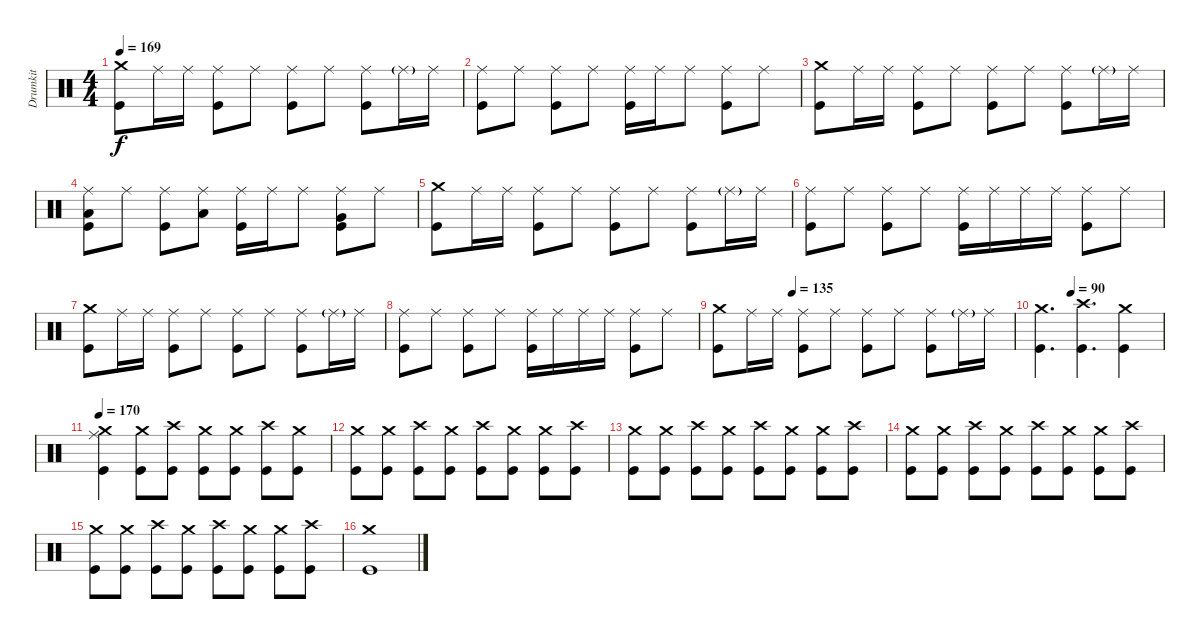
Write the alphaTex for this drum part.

\track ("Drumkit" "Drumkit") {instrument percussion}
\staff {score}
\articulation defaults
\ts (4 4)
\tempo 169
\clef neutral
\ks c
("Crash medium (hit)" "Kick (hit)").8{dy f} "Ride (middle)".16 "Ride (middle)".16 ("Ride (middle)" "Kick (hit)").8 "Ride (middle)".8 ("Ride (middle)" "Kick (hit)").8 "Ride (middle)".8 ("Ride (middle)" "Kick (hit)").8 "Ride (middle)"{g}.16 "Ride (middle)".16 |
("Ride (middle)" "Kick (hit)").8 "Ride (middle)".8 ("Ride (middle)" "Kick (hit)").8 "Ride (middle)".8 ("Ride (middle)" "Kick (hit)").16 "Ride (middle)".16 "Ride (middle)".8 ("Ride (middle)" "Kick (hit)").8 "Ride (middle)".8 |
("Crash medium (hit)" "Kick (hit)").8 "Ride (middle)".16 "Ride (middle)".16 ("Ride (middle)" "Kick (hit)").8 "Ride (middle)".8 ("Ride (middle)" "Kick (hit)").8 "Ride (middle)".8 ("Ride (middle)" "Kick (hit)").8 "Ride (middle)"{g}.16 "Ride (middle)".16 |
("Ride (middle)" "Low Floor Tom (hit)" "Kick (hit)").8 "Ride (middle)".8 ("Ride (middle)" "Kick (hit)").8 ("Ride (middle)" "Low Tom (hit)").8 ("Ride (middle)" "Kick (hit)").16 "Ride (middle)".16 "Ride (middle)".8 ("Ride (middle)" "Very Low Tom (hit)" "Kick (hit)").8 "Ride (middle)".8 |
("Crash medium (hit)" "Kick (hit)").8 "Ride (middle)".16 "Ride (middle)".16 ("Ride (middle)" "Kick (hit)").8 "Ride (middle)".8 ("Ride (middle)" "Kick (hit)").8 "Ride (middle)".8 ("Ride (middle)" "Kick (hit)").8 "Ride (middle)"{g}.16 "Ride (middle)".16 |
("Ride (middle)" "Kick (hit)").8 "Ride (middle)".8 ("Ride (middle)" "Kick (hit)").8 "Ride (middle)".8 ("Ride (middle)" "Kick (hit)").16 "Ride (middle)".16 "Ride (middle)".16 "Ride (middle)".16 ("Ride (middle)" "Kick (hit)").8 "Ride (middle)".8 |
("Crash medium (hit)" "Kick (hit)").8 "Ride (middle)".16 "Ride (middle)".16 ("Ride (middle)" "Kick (hit)").8 "Ride (middle)".8 ("Ride (middle)" "Kick (hit)").8 "Ride (middle)".8 ("Ride (middle)" "Kick (hit)").8 "Ride (middle)"{g}.16 "Ride (middle)".16 |
("Ride (middle)" "Kick (hit)").8 "Ride (middle)".8 ("Ride (middle)" "Kick (hit)").8 "Ride (middle)".8 ("Ride (middle)" "Kick (hit)").16 "Ride (middle)".16 "Ride (middle)".16 "Ride (middle)".16 ("Ride (middle)" "Kick (hit)").8 "Ride (middle)".8 |
\tempo (135 0.25)
("Crash medium (hit)" "Kick (hit)").8 "Ride (middle)".16 "Ride (middle)".16 ("Ride (middle)" "Kick (hit)").8 "Ride (middle)".8 ("Ride (middle)" "Kick (hit)").8 "Ride (middle)".8 ("Ride (middle)" "Kick (hit)").8 "Ride (middle)"{g}.16 "Ride (middle)".16 |
\tempo (90 0.25)
("Crash medium (hit)" "Kick (hit)").4{d} ("Crash high (hit)" "Kick (hit)").4{d} ("Crash medium (hit)" "Kick (hit)").4 |
\tempo 170
("Crash medium (hit)" "Kick (hit)" "Ride (middle)").4 ("Crash medium (hit)" "Kick (hit)").8 ("Crash high (hit)" "Kick (hit)").8 ("Crash medium (hit)" "Kick (hit)").8 ("Crash medium (hit)" "Kick (hit)").8 ("Crash high (hit)" "Kick (hit)").8 ("Crash medium (hit)" "Kick (hit)").8 |
("Crash medium (hit)" "Kick (hit)").8 ("Crash medium (hit)" "Kick (hit)").8 ("Crash high (hit)" "Kick (hit)").8 ("Crash medium (hit)" "Kick (hit)").8 ("Crash high (hit)" "Kick (hit)").8 ("Crash medium (hit)" "Kick (hit)").8 ("Crash medium (hit)" "Kick (hit)").8 ("Crash high (hit)" "Kick (hit)").8 |
("Crash medium (hit)" "Kick (hit)").8 ("Crash medium (hit)" "Kick (hit)").8 ("Crash high (hit)" "Kick (hit)").8 ("Crash medium (hit)" "Kick (hit)").8 ("Crash high (hit)" "Kick (hit)").8 ("Crash medium (hit)" "Kick (hit)").8 ("Crash medium (hit)" "Kick (hit)").8 ("Crash high (hit)" "Kick (hit)").8 |
("Crash medium (hit)" "Kick (hit)").8 ("Crash medium (hit)" "Kick (hit)").8 ("Crash high (hit)" "Kick (hit)").8 ("Crash medium (hit)" "Kick (hit)").8 ("Crash high (hit)" "Kick (hit)").8 ("Crash medium (hit)" "Kick (hit)").8 ("Crash medium (hit)" "Kick (hit)").8 ("Crash high (hit)" "Kick (hit)").8 |
("Crash medium (hit)" "Kick (hit)").8 ("Crash medium (hit)" "Kick (hit)").8 ("Crash high (hit)" "Kick (hit)").8 ("Crash medium (hit)" "Kick (hit)").8 ("Crash high (hit)" "Kick (hit)").8 ("Crash medium (hit)" "Kick (hit)").8 ("Crash medium (hit)" "Kick (hit)").8 ("Crash high (hit)" "Kick (hit)").8 |
("Crash medium (hit)" "Kick (hit)").1
